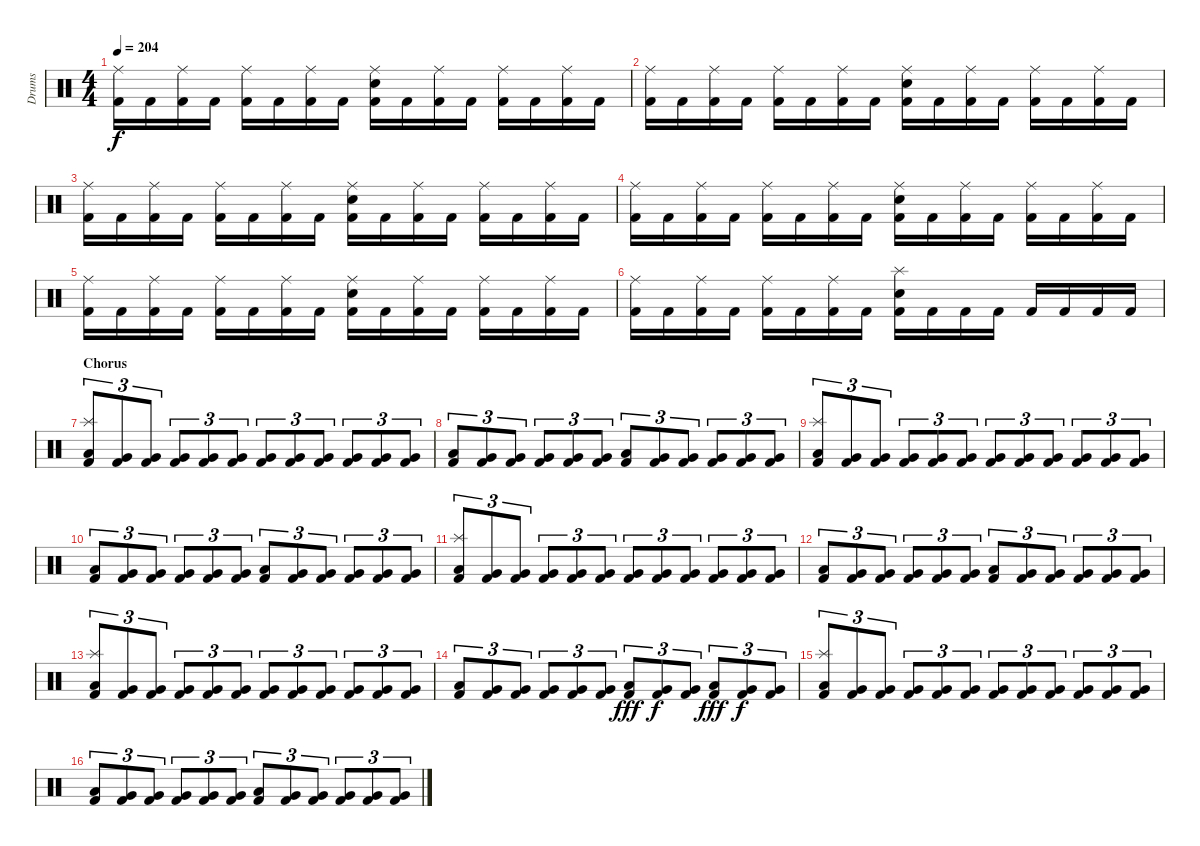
\track ("Drums" "Drums") {instrument percussion}
\staff {score}
\articulation defaults
\ts (4 4)
\tempo 204
\clef neutral
\ks c
("Ride (middle)" "Kick (hit) 2").16{dy f} "Kick (hit) 2".16 ("Ride (middle)" "Kick (hit) 2").16 "Kick (hit) 2".16 ("Ride (middle)" "Kick (hit) 2").16 "Kick (hit) 2".16 ("Ride (middle)" "Kick (hit) 2").16 "Kick (hit) 2".16 ("Ride (middle)" "Electric Snare (hit)" "Kick (hit) 2").16 "Kick (hit) 2".16 ("Ride (middle)" "Kick (hit) 2").16 "Kick (hit) 2".16 ("Ride (middle)" "Kick (hit) 2").16 "Kick (hit) 2".16 ("Ride (middle)" "Kick (hit) 2").16 "Kick (hit) 2".16 |
("Ride (middle)" "Kick (hit) 2").16 "Kick (hit) 2".16 ("Ride (middle)" "Kick (hit) 2").16 "Kick (hit) 2".16 ("Ride (middle)" "Kick (hit) 2").16 "Kick (hit) 2".16 ("Ride (middle)" "Kick (hit) 2").16 "Kick (hit) 2".16 ("Ride (middle)" "Electric Snare (hit)" "Kick (hit) 2").16 "Kick (hit) 2".16 ("Ride (middle)" "Kick (hit) 2").16 "Kick (hit) 2".16 ("Ride (middle)" "Kick (hit) 2").16 "Kick (hit) 2".16 ("Ride (middle)" "Kick (hit) 2").16 "Kick (hit) 2".16 |
("Ride (middle)" "Kick (hit) 2").16 "Kick (hit) 2".16 ("Ride (middle)" "Kick (hit) 2").16 "Kick (hit) 2".16 ("Ride (middle)" "Kick (hit) 2").16 "Kick (hit) 2".16 ("Ride (middle)" "Kick (hit) 2").16 "Kick (hit) 2".16 ("Ride (middle)" "Electric Snare (hit)" "Kick (hit) 2").16 "Kick (hit) 2".16 ("Ride (middle)" "Kick (hit) 2").16 "Kick (hit) 2".16 ("Ride (middle)" "Kick (hit) 2").16 "Kick (hit) 2".16 ("Ride (middle)" "Kick (hit) 2").16 "Kick (hit) 2".16 |
("Ride (middle)" "Kick (hit) 2").16 "Kick (hit) 2".16 ("Ride (middle)" "Kick (hit) 2").16 "Kick (hit) 2".16 ("Ride (middle)" "Kick (hit) 2").16 "Kick (hit) 2".16 ("Ride (middle)" "Kick (hit) 2").16 "Kick (hit) 2".16 ("Ride (middle)" "Electric Snare (hit)" "Kick (hit) 2").16 "Kick (hit) 2".16 ("Ride (middle)" "Kick (hit) 2").16 "Kick (hit) 2".16 ("Ride (middle)" "Kick (hit) 2").16 "Kick (hit) 2".16 ("Ride (middle)" "Kick (hit) 2").16 "Kick (hit) 2".16 |
("Ride (middle)" "Kick (hit) 2").16 "Kick (hit) 2".16 ("Ride (middle)" "Kick (hit) 2").16 "Kick (hit) 2".16 ("Ride (middle)" "Kick (hit) 2").16 "Kick (hit) 2".16 ("Ride (middle)" "Kick (hit) 2").16 "Kick (hit) 2".16 ("Ride (middle)" "Electric Snare (hit)" "Kick (hit) 2").16 "Kick (hit) 2".16 ("Ride (middle)" "Kick (hit) 2").16 "Kick (hit) 2".16 ("Ride (middle)" "Kick (hit) 2").16 "Kick (hit) 2".16 ("Ride (middle)" "Kick (hit) 2").16 "Kick (hit) 2".16 |
("Ride (middle)" "Kick (hit) 2").16 "Kick (hit) 2".16 ("Ride (middle)" "Kick (hit) 2").16 "Kick (hit) 2".16 ("Ride (middle)" "Kick (hit) 2").16 "Kick (hit) 2".16 ("Ride (middle)" "Kick (hit) 2").16 "Kick (hit) 2".16 ("Splash (hit)" "Electric Snare (hit)" "Kick (hit) 2").16 "Kick (hit) 2".16 "Kick (hit) 2".16 "Kick (hit) 2".16 "Kick (hit) 2".16 "Kick (hit) 2".16 "Kick (hit) 2".16 "Kick (hit) 2".16 |
\section ("" "Chorus")
("Splash (hit)" "Low Tom (hit)" "Kick (hit) 2").8{tu (3 2)} ("Very Low Tom (hit)" "Kick (hit) 2").8{tu (3 2)} ("Very Low Tom (hit)" "Kick (hit) 2").8{tu (3 2)} ("Very Low Tom (hit)" "Kick (hit) 2").8{tu (3 2)} ("Very Low Tom (hit)" "Kick (hit) 2").8{tu (3 2)} ("Very Low Tom (hit)" "Kick (hit) 2").8{tu (3 2)} ("Very Low Tom (hit)" "Kick (hit) 2").8{tu (3 2)} ("Very Low Tom (hit)" "Kick (hit) 2").8{tu (3 2)} ("Very Low Tom (hit)" "Kick (hit) 2").8{tu (3 2)} ("Very Low Tom (hit)" "Kick (hit) 2").8{tu (3 2)} ("Very Low Tom (hit)" "Kick (hit) 2").8{tu (3 2)} ("Very Low Tom (hit)" "Kick (hit) 2").8{tu (3 2)} |
("Low Tom (hit)" "Kick (hit) 2").8{tu (3 2)} ("Very Low Tom (hit)" "Kick (hit) 2").8{tu (3 2)} ("Very Low Tom (hit)" "Kick (hit) 2").8{tu (3 2)} ("Very Low Tom (hit)" "Kick (hit) 2").8{tu (3 2)} ("Very Low Tom (hit)" "Kick (hit) 2").8{tu (3 2)} ("Very Low Tom (hit)" "Kick (hit) 2").8{tu (3 2)} ("Low Tom (hit)" "Kick (hit) 2").8{tu (3 2)} ("Very Low Tom (hit)" "Kick (hit) 2").8{tu (3 2)} ("Very Low Tom (hit)" "Kick (hit) 2").8{tu (3 2)} ("Very Low Tom (hit)" "Kick (hit) 2").8{tu (3 2)} ("Very Low Tom (hit)" "Kick (hit) 2").8{tu (3 2)} ("Very Low Tom (hit)" "Kick (hit) 2").8{tu (3 2)} |
("Splash (hit)" "Low Tom (hit)" "Kick (hit) 2").8{tu (3 2)} ("Very Low Tom (hit)" "Kick (hit) 2").8{tu (3 2)} ("Very Low Tom (hit)" "Kick (hit) 2").8{tu (3 2)} ("Very Low Tom (hit)" "Kick (hit) 2").8{tu (3 2)} ("Very Low Tom (hit)" "Kick (hit) 2").8{tu (3 2)} ("Very Low Tom (hit)" "Kick (hit) 2").8{tu (3 2)} ("Very Low Tom (hit)" "Kick (hit) 2").8{tu (3 2)} ("Very Low Tom (hit)" "Kick (hit) 2").8{tu (3 2)} ("Very Low Tom (hit)" "Kick (hit) 2").8{tu (3 2)} ("Very Low Tom (hit)" "Kick (hit) 2").8{tu (3 2)} ("Very Low Tom (hit)" "Kick (hit) 2").8{tu (3 2)} ("Very Low Tom (hit)" "Kick (hit) 2").8{tu (3 2)} |
("Low Tom (hit)" "Kick (hit) 2").8{tu (3 2)} ("Very Low Tom (hit)" "Kick (hit) 2").8{tu (3 2)} ("Very Low Tom (hit)" "Kick (hit) 2").8{tu (3 2)} ("Very Low Tom (hit)" "Kick (hit) 2").8{tu (3 2)} ("Very Low Tom (hit)" "Kick (hit) 2").8{tu (3 2)} ("Very Low Tom (hit)" "Kick (hit) 2").8{tu (3 2)} ("Low Tom (hit)" "Kick (hit) 2").8{tu (3 2)} ("Very Low Tom (hit)" "Kick (hit) 2").8{tu (3 2)} ("Very Low Tom (hit)" "Kick (hit) 2").8{tu (3 2)} ("Very Low Tom (hit)" "Kick (hit) 2").8{tu (3 2)} ("Very Low Tom (hit)" "Kick (hit) 2").8{tu (3 2)} ("Very Low Tom (hit)" "Kick (hit) 2").8{tu (3 2)} |
("Splash (hit)" "Low Tom (hit)" "Kick (hit) 2").8{tu (3 2)} ("Very Low Tom (hit)" "Kick (hit) 2").8{tu (3 2)} ("Very Low Tom (hit)" "Kick (hit) 2").8{tu (3 2)} ("Very Low Tom (hit)" "Kick (hit) 2").8{tu (3 2)} ("Very Low Tom (hit)" "Kick (hit) 2").8{tu (3 2)} ("Very Low Tom (hit)" "Kick (hit) 2").8{tu (3 2)} ("Very Low Tom (hit)" "Kick (hit) 2").8{tu (3 2)} ("Very Low Tom (hit)" "Kick (hit) 2").8{tu (3 2)} ("Very Low Tom (hit)" "Kick (hit) 2").8{tu (3 2)} ("Very Low Tom (hit)" "Kick (hit) 2").8{tu (3 2)} ("Very Low Tom (hit)" "Kick (hit) 2").8{tu (3 2)} ("Very Low Tom (hit)" "Kick (hit) 2").8{tu (3 2)} |
("Low Tom (hit)" "Kick (hit) 2").8{tu (3 2)} ("Very Low Tom (hit)" "Kick (hit) 2").8{tu (3 2)} ("Very Low Tom (hit)" "Kick (hit) 2").8{tu (3 2)} ("Very Low Tom (hit)" "Kick (hit) 2").8{tu (3 2)} ("Very Low Tom (hit)" "Kick (hit) 2").8{tu (3 2)} ("Very Low Tom (hit)" "Kick (hit) 2").8{tu (3 2)} ("Low Tom (hit)" "Kick (hit) 2").8{tu (3 2)} ("Very Low Tom (hit)" "Kick (hit) 2").8{tu (3 2)} ("Very Low Tom (hit)" "Kick (hit) 2").8{tu (3 2)} ("Very Low Tom (hit)" "Kick (hit) 2").8{tu (3 2)} ("Very Low Tom (hit)" "Kick (hit) 2").8{tu (3 2)} ("Very Low Tom (hit)" "Kick (hit) 2").8{tu (3 2)} |
("Splash (hit)" "Low Tom (hit)" "Kick (hit) 2").8{tu (3 2)} ("Very Low Tom (hit)" "Kick (hit) 2").8{tu (3 2)} ("Very Low Tom (hit)" "Kick (hit) 2").8{tu (3 2)} ("Very Low Tom (hit)" "Kick (hit) 2").8{tu (3 2)} ("Very Low Tom (hit)" "Kick (hit) 2").8{tu (3 2)} ("Very Low Tom (hit)" "Kick (hit) 2").8{tu (3 2)} ("Very Low Tom (hit)" "Kick (hit) 2").8{tu (3 2)} ("Very Low Tom (hit)" "Kick (hit) 2").8{tu (3 2)} ("Very Low Tom (hit)" "Kick (hit) 2").8{tu (3 2)} ("Very Low Tom (hit)" "Kick (hit) 2").8{tu (3 2)} ("Very Low Tom (hit)" "Kick (hit) 2").8{tu (3 2)} ("Very Low Tom (hit)" "Kick (hit) 2").8{tu (3 2)} |
("Low Tom (hit)" "Kick (hit) 2").8{tu (3 2)} ("Very Low Tom (hit)" "Kick (hit) 2").8{tu (3 2)} ("Very Low Tom (hit)" "Kick (hit) 2").8{tu (3 2)} ("Very Low Tom (hit)" "Kick (hit) 2").8{tu (3 2)} ("Very Low Tom (hit)" "Kick (hit) 2").8{tu (3 2)} ("Very Low Tom (hit)" "Kick (hit) 2").8{tu (3 2)} ("Low Tom (hit)" "Kick (hit) 2").8{tu (3 2) dy fff} ("Very Low Tom (hit)" "Kick (hit) 2").8{tu (3 2) dy f} ("Very Low Tom (hit)" "Kick (hit) 2").8{tu (3 2)} ("Low Tom (hit)" "Kick (hit) 2").8{tu (3 2) dy fff} ("Very Low Tom (hit)" "Kick (hit) 2").8{tu (3 2) dy f} ("Very Low Tom (hit)" "Kick (hit) 2").8{tu (3 2)} |
("Splash (hit)" "Low Tom (hit)" "Kick (hit) 2").8{tu (3 2)} ("Very Low Tom (hit)" "Kick (hit) 2").8{tu (3 2)} ("Very Low Tom (hit)" "Kick (hit) 2").8{tu (3 2)} ("Very Low Tom (hit)" "Kick (hit) 2").8{tu (3 2)} ("Very Low Tom (hit)" "Kick (hit) 2").8{tu (3 2)} ("Very Low Tom (hit)" "Kick (hit) 2").8{tu (3 2)} ("Very Low Tom (hit)" "Kick (hit) 2").8{tu (3 2)} ("Very Low Tom (hit)" "Kick (hit) 2").8{tu (3 2)} ("Very Low Tom (hit)" "Kick (hit) 2").8{tu (3 2)} ("Very Low Tom (hit)" "Kick (hit) 2").8{tu (3 2)} ("Very Low Tom (hit)" "Kick (hit) 2").8{tu (3 2)} ("Very Low Tom (hit)" "Kick (hit) 2").8{tu (3 2)} |
("Low Tom (hit)" "Kick (hit) 2").8{tu (3 2)} ("Very Low Tom (hit)" "Kick (hit) 2").8{tu (3 2)} ("Very Low Tom (hit)" "Kick (hit) 2").8{tu (3 2)} ("Very Low Tom (hit)" "Kick (hit) 2").8{tu (3 2)} ("Very Low Tom (hit)" "Kick (hit) 2").8{tu (3 2)} ("Very Low Tom (hit)" "Kick (hit) 2").8{tu (3 2)} ("Low Tom (hit)" "Kick (hit) 2").8{tu (3 2)} ("Very Low Tom (hit)" "Kick (hit) 2").8{tu (3 2)} ("Very Low Tom (hit)" "Kick (hit) 2").8{tu (3 2)} ("Very Low Tom (hit)" "Kick (hit) 2").8{tu (3 2)} ("Very Low Tom (hit)" "Kick (hit) 2").8{tu (3 2)} ("Very Low Tom (hit)" "Kick (hit) 2").8{tu (3 2)}
